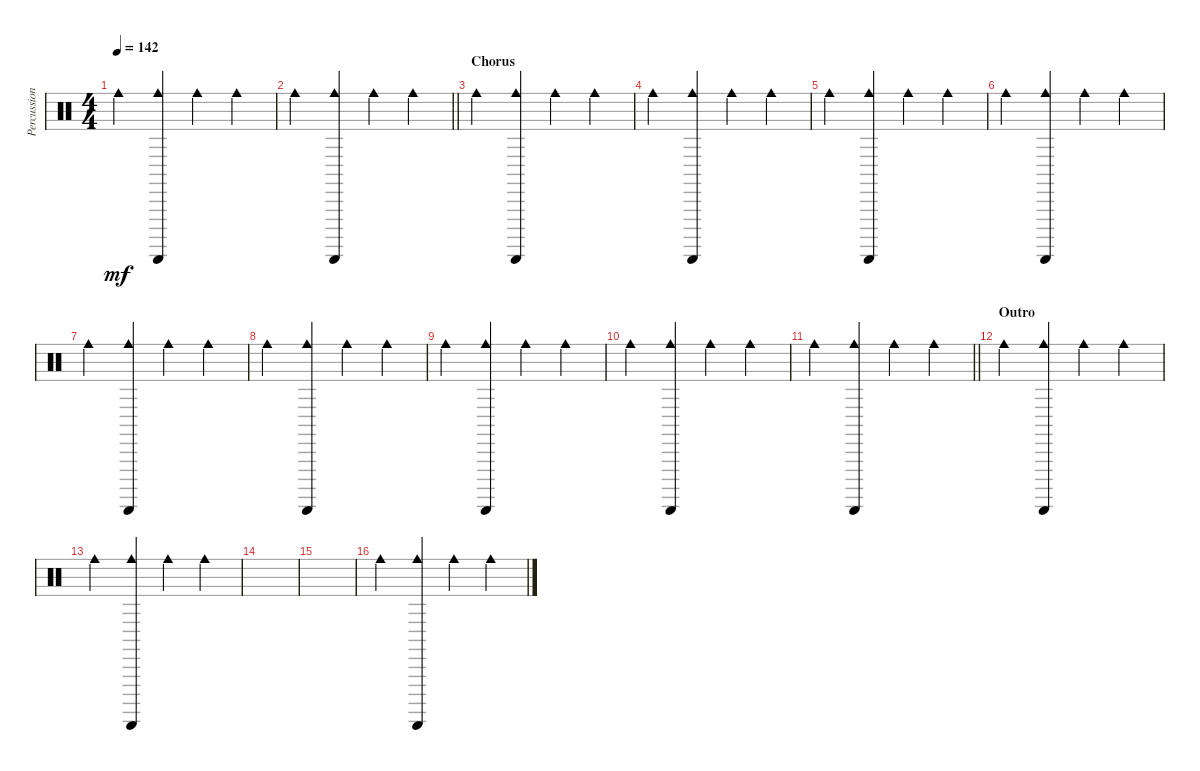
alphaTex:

\track ("Percussion" "Percussion") {instrument percussion}
\staff {score}
\articulation defaults
\ts (4 4)
\tempo 142
\clef neutral
\ks c "Cowbell medium (hit)".4{dy mf}
("Guiro (scrap-return)" "Cowbell medium (hit)").4 "Cowbell medium (hit)".4 "Cowbell medium (hit)".4 |
\barLineRight lightlight "Cowbell medium (hit)".4
("Guiro (scrap-return)" "Cowbell medium (hit)").4 "Cowbell medium (hit)".4 "Cowbell medium (hit)".4 |
\section ("" "Chorus")
"Cowbell medium (hit)".4 ("Guiro (scrap-return)" "Cowbell medium (hit)").4 "Cowbell medium (hit)".4 "Cowbell medium (hit)".4 |
"Cowbell medium (hit)".4 ("Guiro (scrap-return)" "Cowbell medium (hit)").4 "Cowbell medium (hit)".4 "Cowbell medium (hit)".4 |
"Cowbell medium (hit)".4 ("Guiro (scrap-return)" "Cowbell medium (hit)").4 "Cowbell medium (hit)".4 "Cowbell medium (hit)".4 |
"Cowbell medium (hit)".4 ("Guiro (scrap-return)" "Cowbell medium (hit)").4 "Cowbell medium (hit)".4 "Cowbell medium (hit)".4 |
"Cowbell medium (hit)".4 ("Guiro (scrap-return)" "Cowbell medium (hit)").4 "Cowbell medium (hit)".4 "Cowbell medium (hit)".4 |
"Cowbell medium (hit)".4 ("Guiro (scrap-return)" "Cowbell medium (hit)").4 "Cowbell medium (hit)".4 "Cowbell medium (hit)".4 |
"Cowbell medium (hit)".4 ("Guiro (scrap-return)" "Cowbell medium (hit)").4 "Cowbell medium (hit)".4 "Cowbell medium (hit)".4 |
"Cowbell medium (hit)".4 ("Guiro (scrap-return)" "Cowbell medium (hit)").4 "Cowbell medium (hit)".4 "Cowbell medium (hit)".4 |
\barLineRight lightlight "Cowbell medium (hit)".4
("Guiro (scrap-return)" "Cowbell medium (hit)").4 "Cowbell medium (hit)".4 "Cowbell medium (hit)".4 |
\section ("" "Outro")
"Cowbell medium (hit)".4 ("Guiro (scrap-return)" "Cowbell medium (hit)").4 "Cowbell medium (hit)".4 "Cowbell medium (hit)".4 |
"Cowbell medium (hit)".4 ("Guiro (scrap-return)" "Cowbell medium (hit)").4 "Cowbell medium (hit)".4 "Cowbell medium (hit)".4 |
|
|
"Cowbell medium (hit)".4 ("Guiro (scrap-return)" "Cowbell medium (hit)").4 "Cowbell medium (hit)".4 "Cowbell medium (hit)".4
